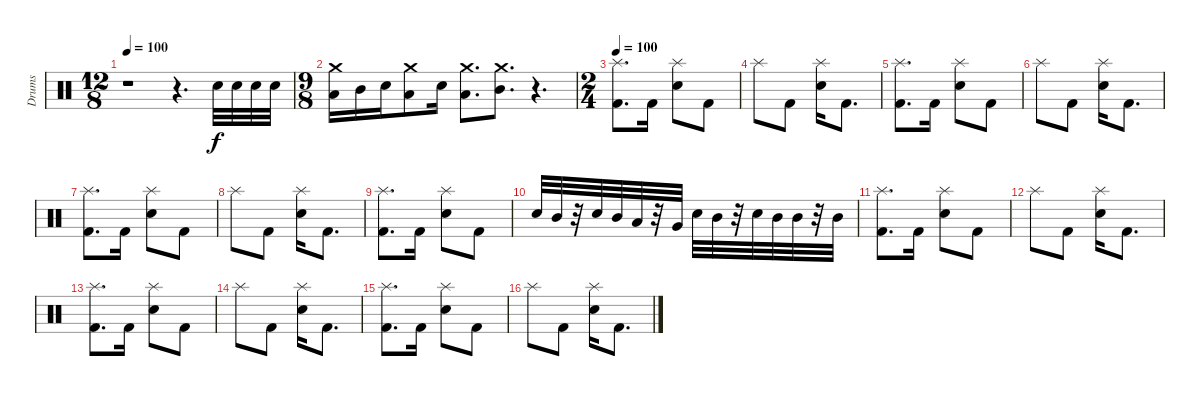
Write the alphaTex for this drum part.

\track ("Drums" "Drums") {instrument percussion}
\staff {score}
\articulation defaults
\ts (12 8)
\tempo 100
\clef neutral
\ks c
r.1{dy f} r.4{d} "Electric Snare (hit)".32 "Electric Snare (hit)".32 "Electric Snare (hit)".32 "Electric Snare (hit)".32 |
\ts (9 8)
("Crash medium (hit)" "Low Tom (hit)").16 "Mid Tom (hit)".16 "Electric Snare (hit)".16 ("Crash medium (hit)" "Low Tom (hit)").8 "Electric Snare (hit)".16 ("Crash medium (hit)" "Low Tom (hit)").8{d} ("Crash medium (hit)" "Mid Tom (hit)").8{d} r.4{d} |
\ts (2 4)
\tempo 100
("Splash (hit)" "Kick (hit) 2").8{d} "Kick (hit) 2".16 ("Electric Snare (hit)" "Splash (hit)").8 "Kick (hit) 2".8 |
"Splash (hit)".8 "Kick (hit) 2".8 ("Electric Snare (hit)" "Splash (hit)").16 "Kick (hit) 2".8{d} |
("Splash (hit)" "Kick (hit) 2").8{d} "Kick (hit) 2".16 ("Electric Snare (hit)" "Splash (hit)").8 "Kick (hit) 2".8 |
"Splash (hit)".8 "Kick (hit) 2".8 ("Electric Snare (hit)" "Splash (hit)").16 "Kick (hit) 2".8{d} |
("Splash (hit)" "Kick (hit) 2").8{d} "Kick (hit) 2".16 ("Electric Snare (hit)" "Splash (hit)").8 "Kick (hit) 2".8 |
"Splash (hit)".8 "Kick (hit) 2".8 ("Electric Snare (hit)" "Splash (hit)").16 "Kick (hit) 2".8{d} |
("Splash (hit)" "Kick (hit) 2").8{d} "Kick (hit) 2".16 ("Electric Snare (hit)" "Splash (hit)").8 "Kick (hit) 2".8 |
"Electric Snare (hit)".32 "Mid Tom (hit)".32 r.32 "Electric Snare (hit)".32 "Mid Tom (hit)".32 "Low Tom (hit)".32 r.32 "Very Low Tom (hit)".32 "Electric Snare (hit)".32 "Mid Tom (hit)".32 r.32 "Electric Snare (hit)".32 "Mid Tom (hit)".32 "Mid Tom (hit)".32 r.32 "Mid Tom (hit)".32 |
("Splash (hit)" "Kick (hit) 2").8{d} "Kick (hit) 2".16 ("Electric Snare (hit)" "Splash (hit)").8 "Kick (hit) 2".8 |
"Splash (hit)".8 "Kick (hit) 2".8 ("Electric Snare (hit)" "Splash (hit)").16 "Kick (hit) 2".8{d} |
("Splash (hit)" "Kick (hit) 2").8{d} "Kick (hit) 2".16 ("Electric Snare (hit)" "Splash (hit)").8 "Kick (hit) 2".8 |
"Splash (hit)".8 "Kick (hit) 2".8 ("Electric Snare (hit)" "Splash (hit)").16 "Kick (hit) 2".8{d} |
("Splash (hit)" "Kick (hit) 2").8{d} "Kick (hit) 2".16 ("Electric Snare (hit)" "Splash (hit)").8 "Kick (hit) 2".8 |
"Splash (hit)".8 "Kick (hit) 2".8 ("Electric Snare (hit)" "Splash (hit)").16 "Kick (hit) 2".8{d}
